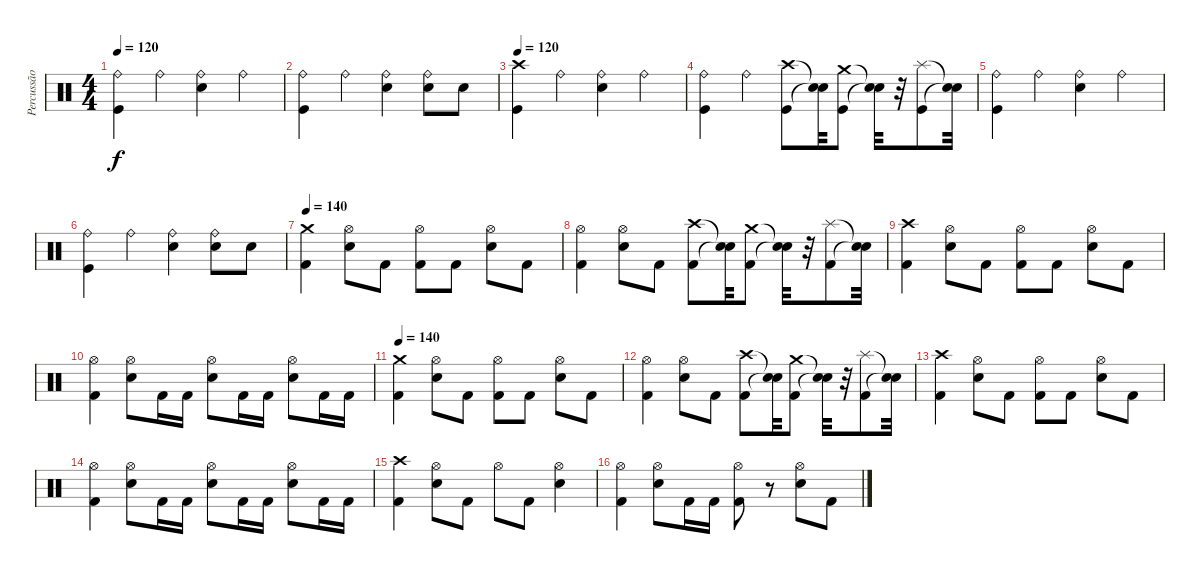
\track ("Percussão" "Percussão") {instrument percussion}
\staff {score}
\articulation defaults
\ts (4 4)
\tempo 120
\clef neutral
\ks c
("Ride (bell)" "Kick (hit)").4{dy f} "Ride (bell)".4 ("Ride (bell)" "Electric Snare (hit)").4 "Ride (bell)".4 |
("Ride (bell)" "Kick (hit)").4 "Ride (bell)".4 ("Ride (bell)" "Electric Snare (hit)").4 ("Ride (bell)" "Electric Snare (hit)").8 "Electric Snare (hit)".8 |
\tempo 120
("Crash high (hit)" "Kick (hit)").4 "Ride (bell)".4 ("Ride (bell)" "Electric Snare (hit)").4 "Ride (bell)".4 |
("Ride (bell)" "Kick (hit)").4 "Ride (bell)".4 ("Crash high (hit)" "Kick (hit)").8 ("Snare (hit)"{t} "Snare (hit)"{t}).32 ("Crash medium (hit)" "Kick (hit)").8 ("Snare (hit)"{t} "Snare (hit)"{t}).32 r.32 ("Splash (hit)" "Kick (hit)").8 ("Snare (hit)"{t} "Snare (hit)"{t}).32 |
("Ride (bell)" "Kick (hit)").4 "Ride (bell)".4 ("Ride (bell)" "Electric Snare (hit)").4 "Ride (bell)".4 |
("Ride (bell)" "Kick (hit)").4 "Ride (bell)".4 ("Ride (bell)" "Electric Snare (hit)").4 ("Ride (bell)" "Electric Snare (hit)").8 "Electric Snare (hit)".8 |
\tempo 140
("Kick (hit) 2" "Crash medium (hit)").4 ("Hi-Hat (open)" "Electric Snare (hit)").8 "Kick (hit) 2".8 ("Hi-Hat (open)" "Kick (hit) 2").8 "Kick (hit) 2".8 ("Hi-Hat (open)" "Electric Snare (hit)").8 "Kick (hit) 2".8 |
("Hi-Hat (open)" "Kick (hit) 2").4 ("Hi-Hat (open)" "Electric Snare (hit)").8 "Kick (hit) 2".8 ("Crash high (hit)" "Kick (hit) 2").8 ("Snare (hit)"{t} "Snare (hit)"{t}).32 ("Crash medium (hit)" "Kick (hit) 2").8 ("Snare (hit)"{t} "Snare (hit)"{t}).32 r.32 ("Splash (hit)" "Kick (hit) 2").8 ("Snare (hit)"{t} "Snare (hit)"{t}).32 |
("Crash high (hit)" "Kick (hit) 2").4 ("Hi-Hat (open)" "Electric Snare (hit)").8 "Kick (hit) 2".8 ("Hi-Hat (open)" "Kick (hit) 2").8 "Kick (hit) 2".8 ("Hi-Hat (open)" "Electric Snare (hit)").8 "Kick (hit) 2".8 |
("Hi-Hat (open)" "Kick (hit) 2").4 ("Hi-Hat (open)" "Electric Snare (hit)").8 "Kick (hit) 2".16 "Kick (hit) 2".16 ("Hi-Hat (open)" "Electric Snare (hit)").8 "Kick (hit) 2".16 "Kick (hit) 2".16 ("Hi-Hat (open)" "Electric Snare (hit)").8 "Kick (hit) 2".16 "Kick (hit) 2".16 |
\tempo 140
("Kick (hit) 2" "Crash medium (hit)").4 ("Hi-Hat (open)" "Electric Snare (hit)").8 "Kick (hit) 2".8 ("Hi-Hat (open)" "Kick (hit) 2").8 "Kick (hit) 2".8 ("Hi-Hat (open)" "Electric Snare (hit)").8 "Kick (hit) 2".8 |
("Hi-Hat (open)" "Kick (hit) 2").4 ("Hi-Hat (open)" "Electric Snare (hit)").8 "Kick (hit) 2".8 ("Crash high (hit)" "Kick (hit) 2").8 ("Snare (hit)"{t} "Snare (hit)"{t}).32 ("Crash medium (hit)" "Kick (hit) 2").8 ("Snare (hit)"{t} "Snare (hit)"{t}).32 r.32 ("Splash (hit)" "Kick (hit) 2").8 ("Snare (hit)"{t} "Snare (hit)"{t}).32 |
("Crash high (hit)" "Kick (hit) 2").4 ("Hi-Hat (open)" "Electric Snare (hit)").8 "Kick (hit) 2".8 ("Hi-Hat (open)" "Kick (hit) 2").8 "Kick (hit) 2".8 ("Hi-Hat (open)" "Electric Snare (hit)").8 "Kick (hit) 2".8 |
("Hi-Hat (open)" "Kick (hit) 2").4 ("Hi-Hat (open)" "Electric Snare (hit)").8 "Kick (hit) 2".16 "Kick (hit) 2".16 ("Hi-Hat (open)" "Electric Snare (hit)").8 "Kick (hit) 2".16 "Kick (hit) 2".16 ("Hi-Hat (open)" "Electric Snare (hit)").8 "Kick (hit) 2".16 "Kick (hit) 2".16 |
("Crash high (hit)" "Kick (hit) 2").4 ("Hi-Hat (open)" "Electric Snare (hit)").8 "Kick (hit) 2".8 "Hi-Hat (open)".8 "Kick (hit) 2".8 ("Hi-Hat (open)" "Electric Snare (hit)").4 |
("Hi-Hat (open)" "Kick (hit) 2").4 ("Hi-Hat (open)" "Electric Snare (hit)").8 "Kick (hit) 2".16 "Kick (hit) 2".16 ("Hi-Hat (open)" "Kick (hit) 2").8 r.8 ("Hi-Hat (open)" "Electric Snare (hit)").8 "Kick (hit) 2".8
